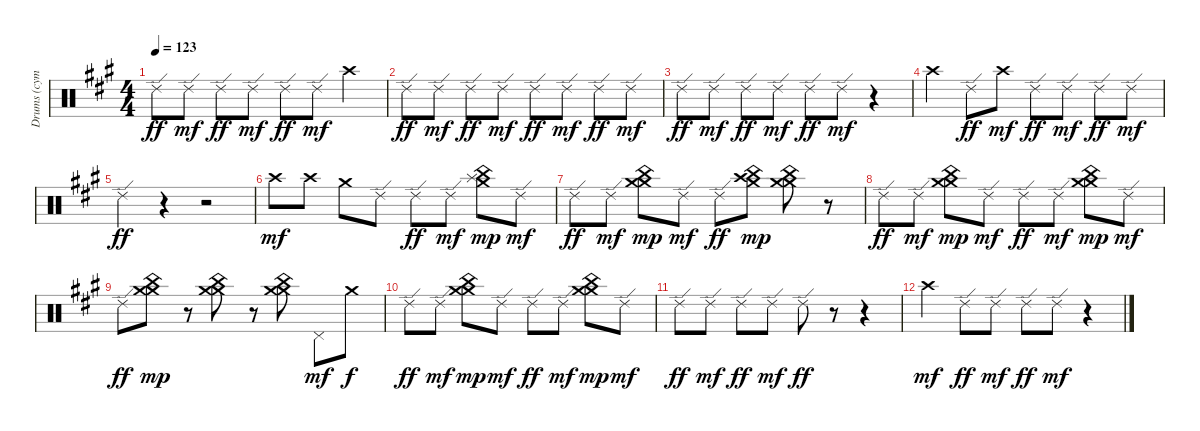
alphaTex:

\track ("Drums (cymbals)" "Drums (cym") {instrument percussion}
\staff {score}
\articulation defaults
\ts (4 4)
\tempo 123
\clef neutral
\ks a "Ride (edge) 2".8{dy ff} "Ride (edge) 2".8{dy mf} "Ride (edge) 2".8{dy ff} "Ride (edge) 2".8{dy mf} "Ride (edge) 2".8{dy ff} "Ride (edge) 2".8{dy mf} "Crash high (hit)".4
|
"Ride (edge) 2".8{dy ff} "Ride (edge) 2".8{dy mf} "Ride (edge) 2".8{dy ff} "Ride (edge) 2".8{dy mf} "Ride (edge) 2".8{dy ff} "Ride (edge) 2".8{dy mf} "Ride (edge) 2".8{dy ff} "Ride (edge) 2".8{dy mf} |
"Ride (edge) 2".8{dy ff} "Ride (edge) 2".8{dy mf} "Ride (edge) 2".8{dy ff} "Ride (edge) 2".8{dy mf} "Ride (edge) 2".8{dy ff} "Ride (edge) 2".8{dy mf} r.4 |
"Crash high (hit)".4 "Ride (edge) 2".8{dy ff} "Crash high (hit)".8{dy mf} "Ride (edge) 2".8{dy ff} "Ride (edge) 2".8{dy mf} "Ride (edge) 2".8{dy ff} "Ride (edge) 2".8{dy mf} |
"Ride (edge) 2".4{dy ff} r.4 r.2 |
"Crash high (hit)".8{dy mf} "Crash high (hit)".8 "Crash medium (hit)".8 "Ride (edge) 2".8 "Ride (edge) 2".8{dy ff} "Ride (edge) 2".8{dy mf} ("Crash medium (hit)" "Splash (hit)" "China (hit)").8{dy mp} "Ride (edge) 2".8{dy mf} |
"Ride (edge) 2".8{dy ff} "Ride (edge) 2".8{dy mf} ("Crash medium (hit)" "Crash medium (hit)" "China (hit)").8{dy mp} "Ride (edge) 2".8{dy mf} "Ride (edge) 2".8{dy ff} ("Crash high (hit)" "Crash medium (hit)" "China (hit)").8{dy mp} ("Crash medium (hit)" "Crash medium (hit)" "China (hit)").8 r.8 |
"Ride (edge) 2".8{dy ff volume 4} "Ride (edge) 2".8{dy mf} ("Crash medium (hit)" "Crash medium (hit)" "China (hit)").8{dy mp} "Ride (edge) 2".8{dy mf} "Ride (edge) 2".8{dy ff} "Ride (edge) 2".8{dy mf} ("Crash medium (hit)" "Crash medium (hit)" "China (hit)").8{dy mp} "Ride (edge) 2".8{dy mf} |
"Ride (edge) 2".8{dy ff} ("Crash medium (hit)" "Crash medium (hit)" "China (hit)").8{dy mp} r.8 ("Crash medium (hit)" "Crash medium (hit)" "China (hit)").8 r.8 ("Crash medium (hit)" "Crash medium (hit)" "China (hit)").8 "Pedal Hi-Hat (hit)".8{dy mf} "Crash medium (hit)".8{dy f} |
"Ride (edge) 2".8{dy ff} "Ride (edge) 2".8{dy mf} ("Crash medium (hit)" "Crash medium (hit)" "China (hit)").8{dy mp} "Ride (edge) 2".8{dy mf} "Ride (edge) 2".8{dy ff} "Ride (edge) 2".8{dy mf} ("Crash medium (hit)" "Crash medium (hit)" "China (hit)").8{dy mp} "Ride (edge) 2".8{dy mf} |
"Ride (edge) 2".8{dy ff} "Ride (edge) 2".8{dy mf} "Ride (edge) 2".8{dy ff} "Ride (edge) 2".8{dy mf} "Ride (edge) 2".8{dy ff} r.8 r.4 |
"Crash high (hit)".4{dy mf} "Ride (edge) 2".8{dy ff} "Ride (edge) 2".8{dy mf} "Ride (edge) 2".8{dy ff} "Ride (edge) 2".8{dy mf} r.4
